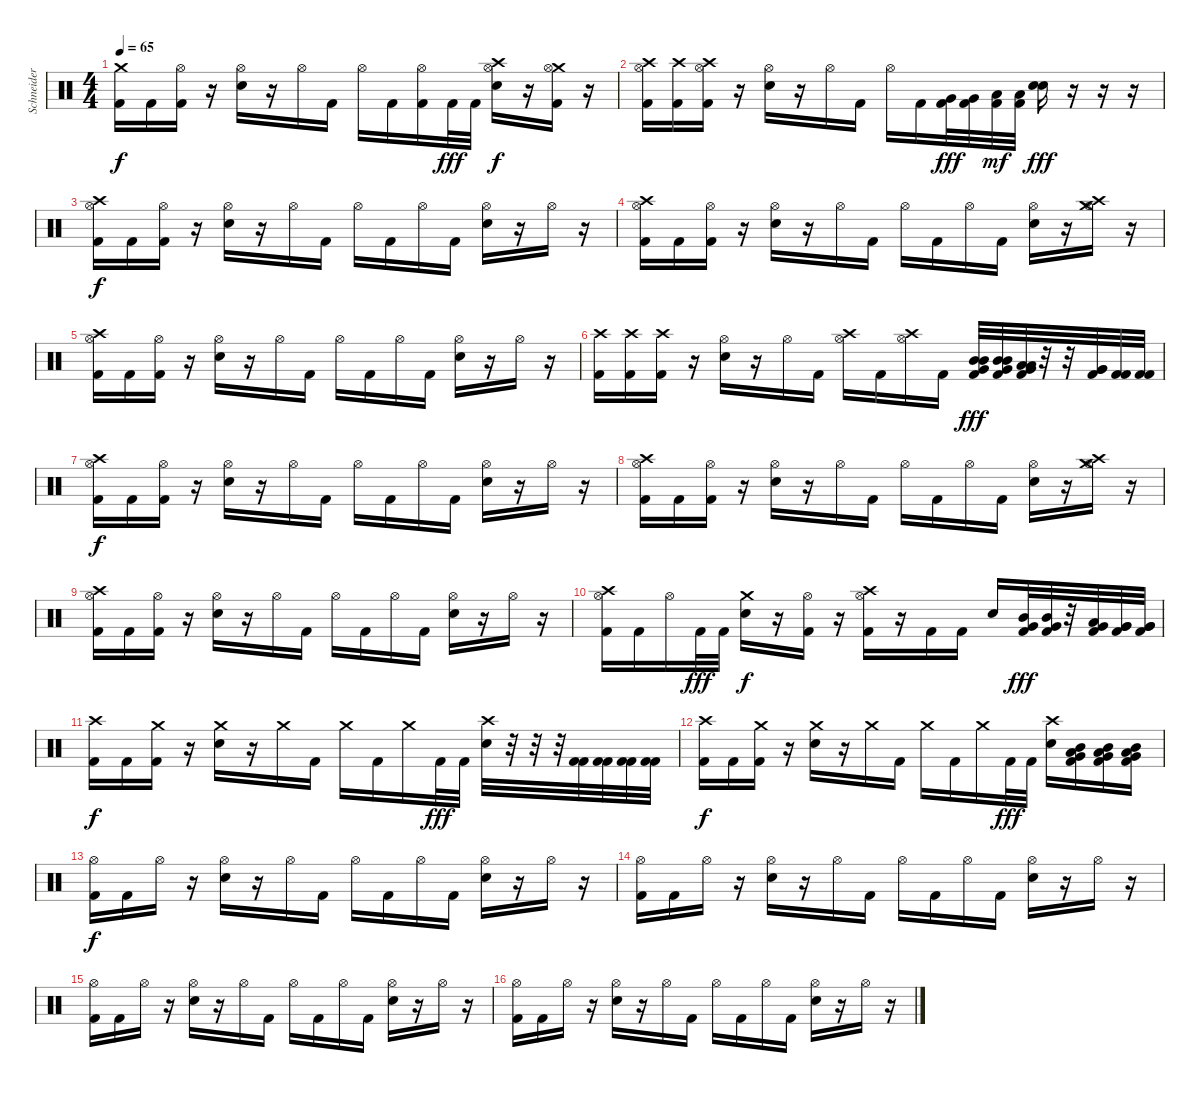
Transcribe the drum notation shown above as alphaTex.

\track ("Schneider" "Schneider") {instrument percussion}
\staff {score}
\articulation defaults
\ts (4 4)
\tempo 65
\clef neutral
\ks c
("Crash medium (hit)" "Kick (hit) 2").16{dy f} "Kick (hit) 2".16 ("Hi-Hat (open)" "Kick (hit) 2").16 r.16 ("Hi-Hat (open)" "Electric Snare (hit)").16 r.16 "Hi-Hat (open)".16 "Kick (hit) 2".16 "Hi-Hat (open)".16 "Kick (hit) 2".16 ("Hi-Hat (open)" "Kick (hit) 2").16 "Kick (hit) 2".32{dy fff} "Kick (hit) 2".32 ("Crash high (hit)" "Hi-Hat (open)" "Electric Snare (hit)").16{dy f} r.16 ("Crash medium (hit)" "Hi-Hat (open)" "Kick (hit) 2").16 r.16 |
("Crash high (hit)" "Hi-Hat (open)" "Kick (hit) 2").16 ("Crash high (hit)" "Kick (hit) 2").16 ("Crash high (hit)" "Hi-Hat (open)" "Kick (hit) 2").16 r.16 ("Hi-Hat (open)" "Electric Snare (hit)").16 r.16 "Hi-Hat (open)".16 "Kick (hit) 2".16 "Hi-Hat (open)".16 "Kick (hit) 2".16 ("Very Low Tom (hit)" "Kick (hit) 2").32{dy fff} ("Very Low Tom (hit)" "Kick (hit) 2").32 ("Low Floor Tom (hit)" "Kick (hit) 2").32{dy mf} ("Low Floor Tom (hit)" "Kick (hit) 2").32 ("Snare (hit) 2" "Snare (hit) 2").16{dy fff} r.16 r.16 r.16 |
("Crash high (hit)" "Hi-Hat (open)" "Kick (hit) 2").16{dy f} "Kick (hit) 2".16 ("Hi-Hat (open)" "Kick (hit) 2").16 r.16 ("Hi-Hat (open)" "Electric Snare (hit)").16 r.16 "Hi-Hat (open)".16 "Kick (hit) 2".16 "Hi-Hat (open)".16 "Kick (hit) 2".16 "Hi-Hat (open)".16 "Kick (hit) 2".16 ("Hi-Hat (open)" "Electric Snare (hit)").16 r.16 "Hi-Hat (open)".16 r.16 |
("Crash high (hit)" "Hi-Hat (open)" "Kick (hit) 2").16 "Kick (hit) 2".16 ("Hi-Hat (open)" "Kick (hit) 2").16 r.16 ("Hi-Hat (open)" "Electric Snare (hit)").16 r.16 "Hi-Hat (open)".16 "Kick (hit) 2".16 "Hi-Hat (open)".16 "Kick (hit) 2".16 "Hi-Hat (open)".16 "Kick (hit) 2".16 ("Hi-Hat (open)" "Electric Snare (hit)").16 r.16 ("Crash medium (hit)" "Crash high (hit)" "Hi-Hat (open)").16 r.16 |
("Crash high (hit)" "Hi-Hat (open)" "Kick (hit) 2").16 "Kick (hit) 2".16 ("Hi-Hat (open)" "Kick (hit) 2").16 r.16 ("Hi-Hat (open)" "Electric Snare (hit)").16 r.16 "Hi-Hat (open)".16 "Kick (hit) 2".16 "Hi-Hat (open)".16 "Kick (hit) 2".16 "Hi-Hat (open)".16 "Kick (hit) 2".16 ("Hi-Hat (open)" "Electric Snare (hit)").16 r.16 "Hi-Hat (open)".16 r.16 |
("Crash high (hit)" "Kick (hit) 2").16 ("Crash high (hit)" "Kick (hit) 2").16 ("Crash high (hit)" "Kick (hit) 2").16 r.16 ("Hi-Hat (open)" "Electric Snare (hit)").16 r.16 "Hi-Hat (open)".16 "Kick (hit) 2".16 ("Crash high (hit)" "Hi-Hat (open)").16 "Kick (hit) 2".16 ("Crash high (hit)" "Hi-Hat (open)").16 "Kick (hit) 2".16 ("Kick (hit) 2" "Mid Tom (hit)" "Mid Tom (hit)" "Very Low Tom (hit)").32{dy fff} ("Kick (hit) 2" "Mid Tom (hit)" "Mid Tom (hit)" "Very Low Tom (hit)").32 ("Kick (hit) 2" "Low Tom (hit)" "Low Tom (hit)" "Very Low Tom (hit)").32 r.32 r.32 ("Kick (hit) 2" "Very Low Tom (hit)" "Very Low Tom (hit)").32 ("Kick (hit) 2" "Kick (hit) 2").32 ("Kick (hit) 2" "Kick (hit) 2").32 |
("Crash high (hit)" "Hi-Hat (open)" "Kick (hit) 2").16{dy f} "Kick (hit) 2".16 ("Hi-Hat (open)" "Kick (hit) 2").16 r.16 ("Hi-Hat (open)" "Electric Snare (hit)").16 r.16 "Hi-Hat (open)".16 "Kick (hit) 2".16 "Hi-Hat (open)".16 "Kick (hit) 2".16 "Hi-Hat (open)".16 "Kick (hit) 2".16 ("Hi-Hat (open)" "Electric Snare (hit)").16 r.16 "Hi-Hat (open)".16 r.16 |
("Crash high (hit)" "Hi-Hat (open)" "Kick (hit) 2").16 "Kick (hit) 2".16 ("Hi-Hat (open)" "Kick (hit) 2").16 r.16 ("Hi-Hat (open)" "Electric Snare (hit)").16 r.16 "Hi-Hat (open)".16 "Kick (hit) 2".16 "Hi-Hat (open)".16 "Kick (hit) 2".16 "Hi-Hat (open)".16 "Kick (hit) 2".16 ("Hi-Hat (open)" "Electric Snare (hit)").16 r.16 ("Crash medium (hit)" "Crash high (hit)" "Hi-Hat (open)").16 r.16 |
("Crash high (hit)" "Hi-Hat (open)" "Kick (hit) 2").16 "Kick (hit) 2".16 ("Hi-Hat (open)" "Kick (hit) 2").16 r.16 ("Hi-Hat (open)" "Electric Snare (hit)").16 r.16 "Hi-Hat (open)".16 "Kick (hit) 2".16 "Hi-Hat (open)".16 "Kick (hit) 2".16 "Hi-Hat (open)".16 "Kick (hit) 2".16 ("Hi-Hat (open)" "Electric Snare (hit)").16 r.16 "Hi-Hat (open)".16 r.16 |
("Crash high (hit)" "Hi-Hat (open)" "Kick (hit) 2").16 "Kick (hit) 2".16 "Hi-Hat (open)".16 "Kick (hit) 2".32{dy fff} "Kick (hit) 2".32 ("Crash medium (hit)" "Electric Snare (hit)").16{dy f} r.16 ("Hi-Hat (open)" "Kick (hit) 2").16 r.16 ("Crash high (hit)" "Hi-Hat (open)" "Kick (hit) 2").16 r.16 "Kick (hit) 2".16 "Kick (hit) 2".16 "Electric Snare (hit)".16 ("Kick (hit) 2" "Mid Tom (hit)" "Very Low Tom (hit)").32{dy fff} ("Kick (hit) 2" "Mid Tom (hit)" "Very Low Tom (hit)").32 r.32 ("Kick (hit) 2" "Low Tom (hit)" "Very Low Tom (hit)").32 ("Kick (hit) 2" "Very Low Tom (hit)" "Very Low Tom (hit)").32 ("Kick (hit) 2" "Very Low Tom (hit)" "Very Low Tom (hit)").32 |
("Crash high (hit)" "Kick (hit) 2").16{dy f} "Kick (hit) 2".16 ("Crash medium (hit)" "Kick (hit) 2").16 r.16 ("Crash medium (hit)" "Electric Snare (hit)").16 r.16 "Crash medium (hit)".16 "Kick (hit) 2".16 "Crash medium (hit)".16 "Kick (hit) 2".16 "Crash medium (hit)".16 "Kick (hit) 2".32{dy fff} "Kick (hit) 2".32 ("Crash high (hit)" "Electric Snare (hit)").32 r.32 r.32 r.32 ("Kick (hit) 2" "Kick (hit) 2").32 ("Kick (hit) 2" "Kick (hit) 2").32 ("Kick (hit) 2" "Kick (hit) 2").32 ("Kick (hit) 2" "Kick (hit) 2").32 |
("Crash high (hit)" "Kick (hit) 2").16{dy f} "Kick (hit) 2".16 ("Crash medium (hit)" "Kick (hit) 2").16 r.16 ("Crash medium (hit)" "Electric Snare (hit)").16 r.16 "Crash medium (hit)".16 "Kick (hit) 2".16 "Crash medium (hit)".16 "Kick (hit) 2".16 "Crash medium (hit)".16 "Kick (hit) 2".32{dy fff} "Kick (hit) 2".32 ("Crash high (hit)" "Electric Snare (hit)").16 ("Very Low Tom (hit)" "Mid Tom (hit)" "Low Tom (hit)" "Kick (hit) 2").16 ("Very Low Tom (hit)" "Mid Tom (hit)" "Low Tom (hit)" "Kick (hit) 2").16 ("Very Low Tom (hit)" "Mid Tom (hit)" "Low Tom (hit)" "Kick (hit) 2").16 |
("Hi-Hat (open)" "Kick (hit) 2").16{dy f} "Kick (hit) 2".16 "Hi-Hat (open)".16 r.16 ("Hi-Hat (open)" "Electric Snare (hit)").16 r.16 "Hi-Hat (open)".16 "Kick (hit) 2".16 "Hi-Hat (open)".16 "Kick (hit) 2".16 "Hi-Hat (open)".16 "Kick (hit) 2".16 ("Hi-Hat (open)" "Electric Snare (hit)").16 r.16 "Hi-Hat (open)".16 r.16 |
("Hi-Hat (open)" "Kick (hit) 2").16 "Kick (hit) 2".16 "Hi-Hat (open)".16 r.16 ("Hi-Hat (open)" "Electric Snare (hit)").16 r.16 "Hi-Hat (open)".16 "Kick (hit) 2".16 "Hi-Hat (open)".16 "Kick (hit) 2".16 "Hi-Hat (open)".16 "Kick (hit) 2".16 ("Hi-Hat (open)" "Electric Snare (hit)").16 r.16 "Hi-Hat (open)".16 r.16 |
("Hi-Hat (open)" "Kick (hit) 2").16 "Kick (hit) 2".16 "Hi-Hat (open)".16 r.16 ("Hi-Hat (open)" "Electric Snare (hit)").16 r.16 "Hi-Hat (open)".16 "Kick (hit) 2".16 "Hi-Hat (open)".16 "Kick (hit) 2".16 "Hi-Hat (open)".16 "Kick (hit) 2".16 ("Hi-Hat (open)" "Electric Snare (hit)").16 r.16 "Hi-Hat (open)".16 r.16 |
("Hi-Hat (open)" "Kick (hit) 2").16 "Kick (hit) 2".16 "Hi-Hat (open)".16 r.16 ("Hi-Hat (open)" "Electric Snare (hit)").16 r.16 "Hi-Hat (open)".16 "Kick (hit) 2".16 "Hi-Hat (open)".16 "Kick (hit) 2".16 "Hi-Hat (open)".16 "Kick (hit) 2".16 ("Hi-Hat (open)" "Electric Snare (hit)").16 r.16 "Hi-Hat (open)".16 r.16
